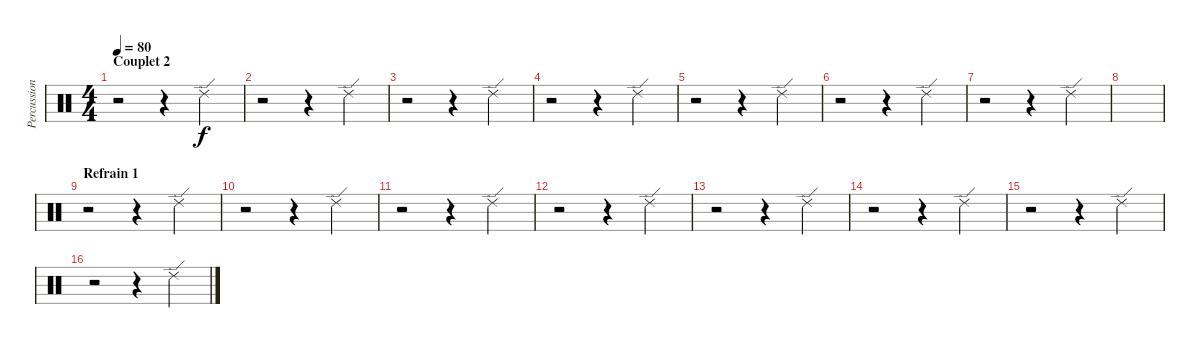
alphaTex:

\track ("Percussions" "Percussion") {instrument percussion}
\staff {score}
\articulation defaults
\ts (4 4)
\section ("" "Couplet 2")
\tempo 80
\clef neutral
\ks c
r.2{dy f} r.4 "Ride (edge) 2".4 |
r.2 r.4 "Ride (edge) 2".4 |
r.2 r.4 "Ride (edge) 2".4 |
r.2 r.4 "Ride (edge) 2".4 |
r.2 r.4 "Ride (edge) 2".4 |
r.2 r.4 "Ride (edge) 2".4 |
r.2 r.4 "Ride (edge) 2".4 |
|
\section ("" "Refrain 1")
r.2 r.4 "Ride (edge) 2".4 |
r.2 r.4 "Ride (edge) 2".4 |
r.2 r.4 "Ride (edge) 2".4 |
r.2 r.4 "Ride (edge) 2".4 |
r.2 r.4 "Ride (edge) 2".4 |
r.2 r.4 "Ride (edge) 2".4 |
r.2 r.4 "Ride (edge) 2".4 |
r.2 r.4 "Ride (edge) 2".4
